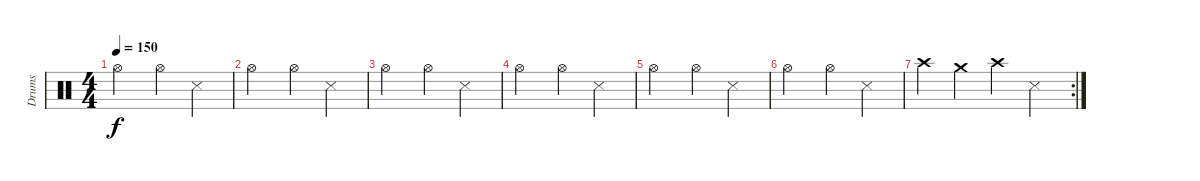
\track ("Drums" "Drums") {instrument percussion}
\staff {score}
\articulation defaults
\ts (4 4)
\tempo 150
\clef neutral
\ks c "Hi-Hat (open)".2{dy f} "Hi-Hat (open)".4 "Snare (side stick) 3".4
|
"Hi-Hat (open)".2 "Hi-Hat (open)".4 "Snare (side stick) 3".4 |
"Hi-Hat (open)".2 "Hi-Hat (open)".4 "Snare (side stick) 3".4 |
"Hi-Hat (open)".2 "Hi-Hat (open)".4 "Snare (side stick) 3".4 |
"Hi-Hat (open)".2 "Hi-Hat (open)".4 "Snare (side stick) 3".4 |
"Hi-Hat (open)".2 "Hi-Hat (open)".4 "Snare (side stick) 3".4 |
\rc 2 "Crash high (hit)".4 "Crash medium (hit)".4 "Crash high (hit)".4 "Snare (side stick) 3".4
